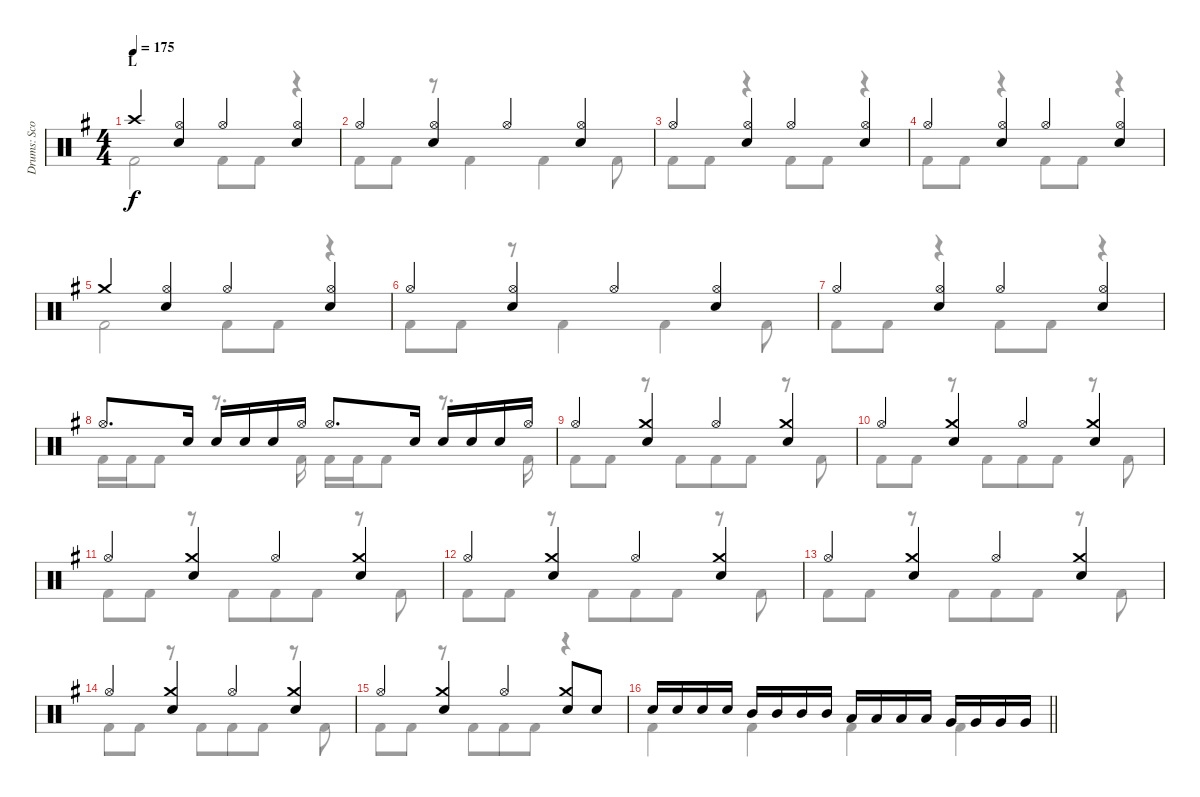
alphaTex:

\track ("Drums: Scott" "Drums: Sco") {instrument percussion}
\staff {score}
\articulation defaults
\voice
\ts (4 4)
\section ("" "L")
\tempo 175
\clef neutral
\ks g "Crash high (hit)".4{dy f}
("Hi-Hat (open)" "Snare (hit) 2").4 "Hi-Hat (open)".4 ("Hi-Hat (open)" "Snare (hit) 2").4 |
"Hi-Hat (open)".4 ("Hi-Hat (open)" "Snare (hit) 2").4 "Hi-Hat (open)".4 ("Hi-Hat (open)" "Snare (hit) 2").4 |
"Hi-Hat (open)".4 ("Hi-Hat (open)" "Snare (hit) 2").4 "Hi-Hat (open)".4 ("Hi-Hat (open)" "Snare (hit) 2").4 |
"Hi-Hat (open)".4 ("Hi-Hat (open)" "Snare (hit) 2").4 "Hi-Hat (open)".4 ("Hi-Hat (open)" "Snare (hit) 2").4 |
"Crash medium (hit)".4 ("Hi-Hat (open)" "Snare (hit) 2").4 "Hi-Hat (open)".4 ("Hi-Hat (open)" "Snare (hit) 2").4 |
"Hi-Hat (open)".4 ("Hi-Hat (open)" "Snare (hit) 2").4 "Hi-Hat (open)".4 ("Hi-Hat (open)" "Snare (hit) 2").4 |
"Hi-Hat (open)".4 ("Hi-Hat (open)" "Snare (hit) 2").4 "Hi-Hat (open)".4 ("Hi-Hat (open)" "Snare (hit) 2").4 |
"Hi-Hat (open)".8{d} "Snare (hit) 2".16 "Snare (hit) 2".16 "Snare (hit) 2".16 "Snare (hit) 2".16 "Hi-Hat (open)".16 "Hi-Hat (open)".8{d} "Snare (hit) 2".16 "Snare (hit) 2".16 "Snare (hit) 2".16 "Snare (hit) 2".16 "Hi-Hat (open)".16 |
"Hi-Hat (open)".4 ("Crash medium (hit)" "Snare (hit) 2").4 "Hi-Hat (open)".4 ("Crash medium (hit)" "Snare (hit) 2").4 |
"Hi-Hat (open)".4 ("Crash medium (hit)" "Snare (hit) 2").4 "Hi-Hat (open)".4 ("Crash medium (hit)" "Snare (hit) 2").4 |
"Hi-Hat (open)".4 ("Crash medium (hit)" "Snare (hit) 2").4 "Hi-Hat (open)".4 ("Crash medium (hit)" "Snare (hit) 2").4 |
"Hi-Hat (open)".4 ("Crash medium (hit)" "Snare (hit) 2").4 "Hi-Hat (open)".4 ("Crash medium (hit)" "Snare (hit) 2").4 |
"Hi-Hat (open)".4 ("Crash medium (hit)" "Snare (hit) 2").4 "Hi-Hat (open)".4 ("Crash medium (hit)" "Snare (hit) 2").4 |
"Hi-Hat (open)".4 ("Crash medium (hit)" "Snare (hit) 2").4 "Hi-Hat (open)".4 ("Crash medium (hit)" "Snare (hit) 2").4 |
"Hi-Hat (open)".4 ("Crash medium (hit)" "Snare (hit) 2").4 "Hi-Hat (open)".4 ("Crash medium (hit)" "Snare (hit) 2").8 "Snare (hit) 2".8 |
\barLineRight lightlight "Snare (hit) 2".16 "Snare (hit) 2".16 "Snare (hit) 2".16 "Snare (hit) 2".16 "Mid Tom (hit)".16 "Mid Tom (hit)".16 "Mid Tom (hit)".16 "Mid Tom (hit)".16 "Low Tom (hit)".16 "Low Tom (hit)".16 "Low Tom (hit)".16 "Low Tom (hit)".16 "Very Low Tom (hit)".16 "Very Low Tom (hit)".16 "Very Low Tom (hit)".16 "Very Low Tom (hit)".16
\voice
\clef neutral
\ottava regular
\simile none
\ks g "Kick (hit) 2".2{dy f} "Kick (hit) 2".8 "Kick (hit) 2".8
r.4 |
"Kick (hit) 2".8 "Kick (hit) 2".8 r.8 "Kick (hit) 2".4 "Kick (hit) 2".4 "Kick (hit) 2".8 |
"Kick (hit) 2".8 "Kick (hit) 2".8 r.4 "Kick (hit) 2".8 "Kick (hit) 2".8 r.4 |
"Kick (hit) 2".8 "Kick (hit) 2".8 r.4 "Kick (hit) 2".8 "Kick (hit) 2".8 r.4 |
"Kick (hit) 2".2 "Kick (hit) 2".8 "Kick (hit) 2".8 r.4 |
"Kick (hit) 2".8 "Kick (hit) 2".8 r.8 "Kick (hit) 2".4 "Kick (hit) 2".4 "Kick (hit) 2".8 |
"Kick (hit) 2".8 "Kick (hit) 2".8 r.4 "Kick (hit) 2".8 "Kick (hit) 2".8 r.4 |
"Kick (hit) 2".16 "Kick (hit) 2".16 "Kick (hit) 2".8 r.8{d} "Kick (hit) 2".16 "Kick (hit) 2".16 "Kick (hit) 2".16 "Kick (hit) 2".8 r.8{d} "Kick (hit) 2".16 |
"Kick (hit) 2".8 "Kick (hit) 2".8 r.8 "Kick (hit) 2".8{beam merge} "Kick (hit) 2".8 "Kick (hit) 2".8 r.8 "Kick (hit) 2".8 |
"Kick (hit) 2".8 "Kick (hit) 2".8 r.8 "Kick (hit) 2".8{beam merge} "Kick (hit) 2".8 "Kick (hit) 2".8 r.8 "Kick (hit) 2".8 |
"Kick (hit) 2".8 "Kick (hit) 2".8 r.8 "Kick (hit) 2".8{beam merge} "Kick (hit) 2".8 "Kick (hit) 2".8 r.8 "Kick (hit) 2".8 |
"Kick (hit) 2".8 "Kick (hit) 2".8 r.8 "Kick (hit) 2".8{beam merge} "Kick (hit) 2".8 "Kick (hit) 2".8 r.8 "Kick (hit) 2".8 |
"Kick (hit) 2".8 "Kick (hit) 2".8 r.8 "Kick (hit) 2".8{beam merge} "Kick (hit) 2".8 "Kick (hit) 2".8 r.8 "Kick (hit) 2".8 |
"Kick (hit) 2".8 "Kick (hit) 2".8 r.8 "Kick (hit) 2".8{beam merge} "Kick (hit) 2".8 "Kick (hit) 2".8 r.8 "Kick (hit) 2".8 |
"Kick (hit) 2".8 "Kick (hit) 2".8 r.8 "Kick (hit) 2".8{beam merge} "Kick (hit) 2".8 "Kick (hit) 2".8 r.4 |
\barLineRight lightlight "Kick (hit) 2".4 "Kick (hit) 2".4 "Kick (hit) 2".4{beam merge} "Kick (hit) 2".4
